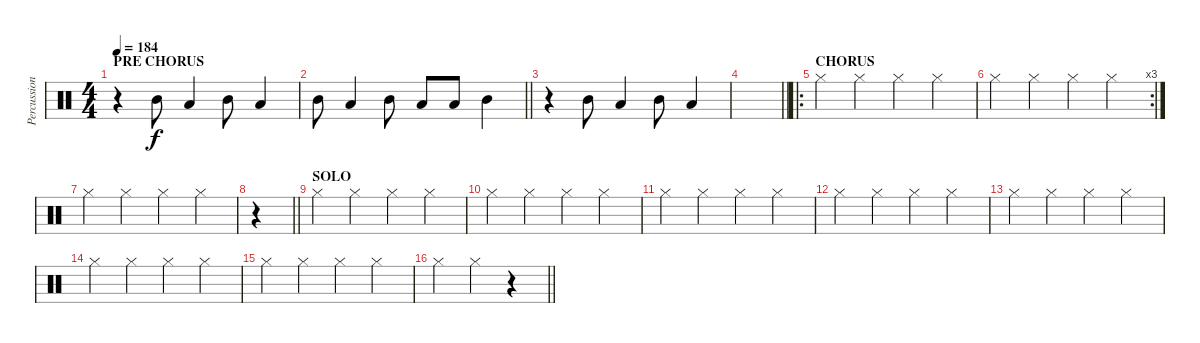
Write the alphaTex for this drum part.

\track ("Percussions" "Percussion") {instrument percussion}
\staff {score}
\articulation defaults
\ts (4 4)
\section ("" "PRE CHORUS")
\tempo 184
\clef neutral
\ks c
r.4{dy f} "Mid Tom (hit)".8 "Low Tom (hit)".4 "Mid Tom (hit)".8 "Low Tom (hit)".4 |
\barLineRight lightlight "Mid Tom (hit)".8 "Low Tom (hit)".4 "Mid Tom (hit)".8 "Low Tom (hit)".8 "Low Tom (hit)".8 "Mid Tom (hit)".4
|
r.4 "Mid Tom (hit)".8 "Low Tom (hit)".4 "Mid Tom (hit)".8 "Low Tom (hit)".4 |
\barLineRight lightlight
|
\ro
\section ("" "CHORUS")
"Hi-Hat (closed)".4 "Hi-Hat (closed)".4 "Hi-Hat (closed)".4 "Hi-Hat (closed)".4 |
\rc 3 "Hi-Hat (closed)".4 "Hi-Hat (closed)".4 "Hi-Hat (closed)".4 "Hi-Hat (closed)".4
|
"Hi-Hat (closed)".4 "Hi-Hat (closed)".4 "Hi-Hat (closed)".4 "Hi-Hat (closed)".4 |
\barLineRight lightlight
r.4 |
\section ("" "SOLO")
"Hi-Hat (closed)".4 "Hi-Hat (closed)".4 "Hi-Hat (closed)".4 "Hi-Hat (closed)".4 |
"Hi-Hat (closed)".4 "Hi-Hat (closed)".4 "Hi-Hat (closed)".4 "Hi-Hat (closed)".4 |
"Hi-Hat (closed)".4 "Hi-Hat (closed)".4 "Hi-Hat (closed)".4 "Hi-Hat (closed)".4 |
"Hi-Hat (closed)".4 "Hi-Hat (closed)".4 "Hi-Hat (closed)".4 "Hi-Hat (closed)".4 |
"Hi-Hat (closed)".4 "Hi-Hat (closed)".4 "Hi-Hat (closed)".4 "Hi-Hat (closed)".4 |
"Hi-Hat (closed)".4 "Hi-Hat (closed)".4 "Hi-Hat (closed)".4 "Hi-Hat (closed)".4 |
"Hi-Hat (closed)".4 "Hi-Hat (closed)".4 "Hi-Hat (closed)".4 "Hi-Hat (closed)".4 |
\barLineRight lightlight "Hi-Hat (closed)".4 "Hi-Hat (closed)".4
r.4
